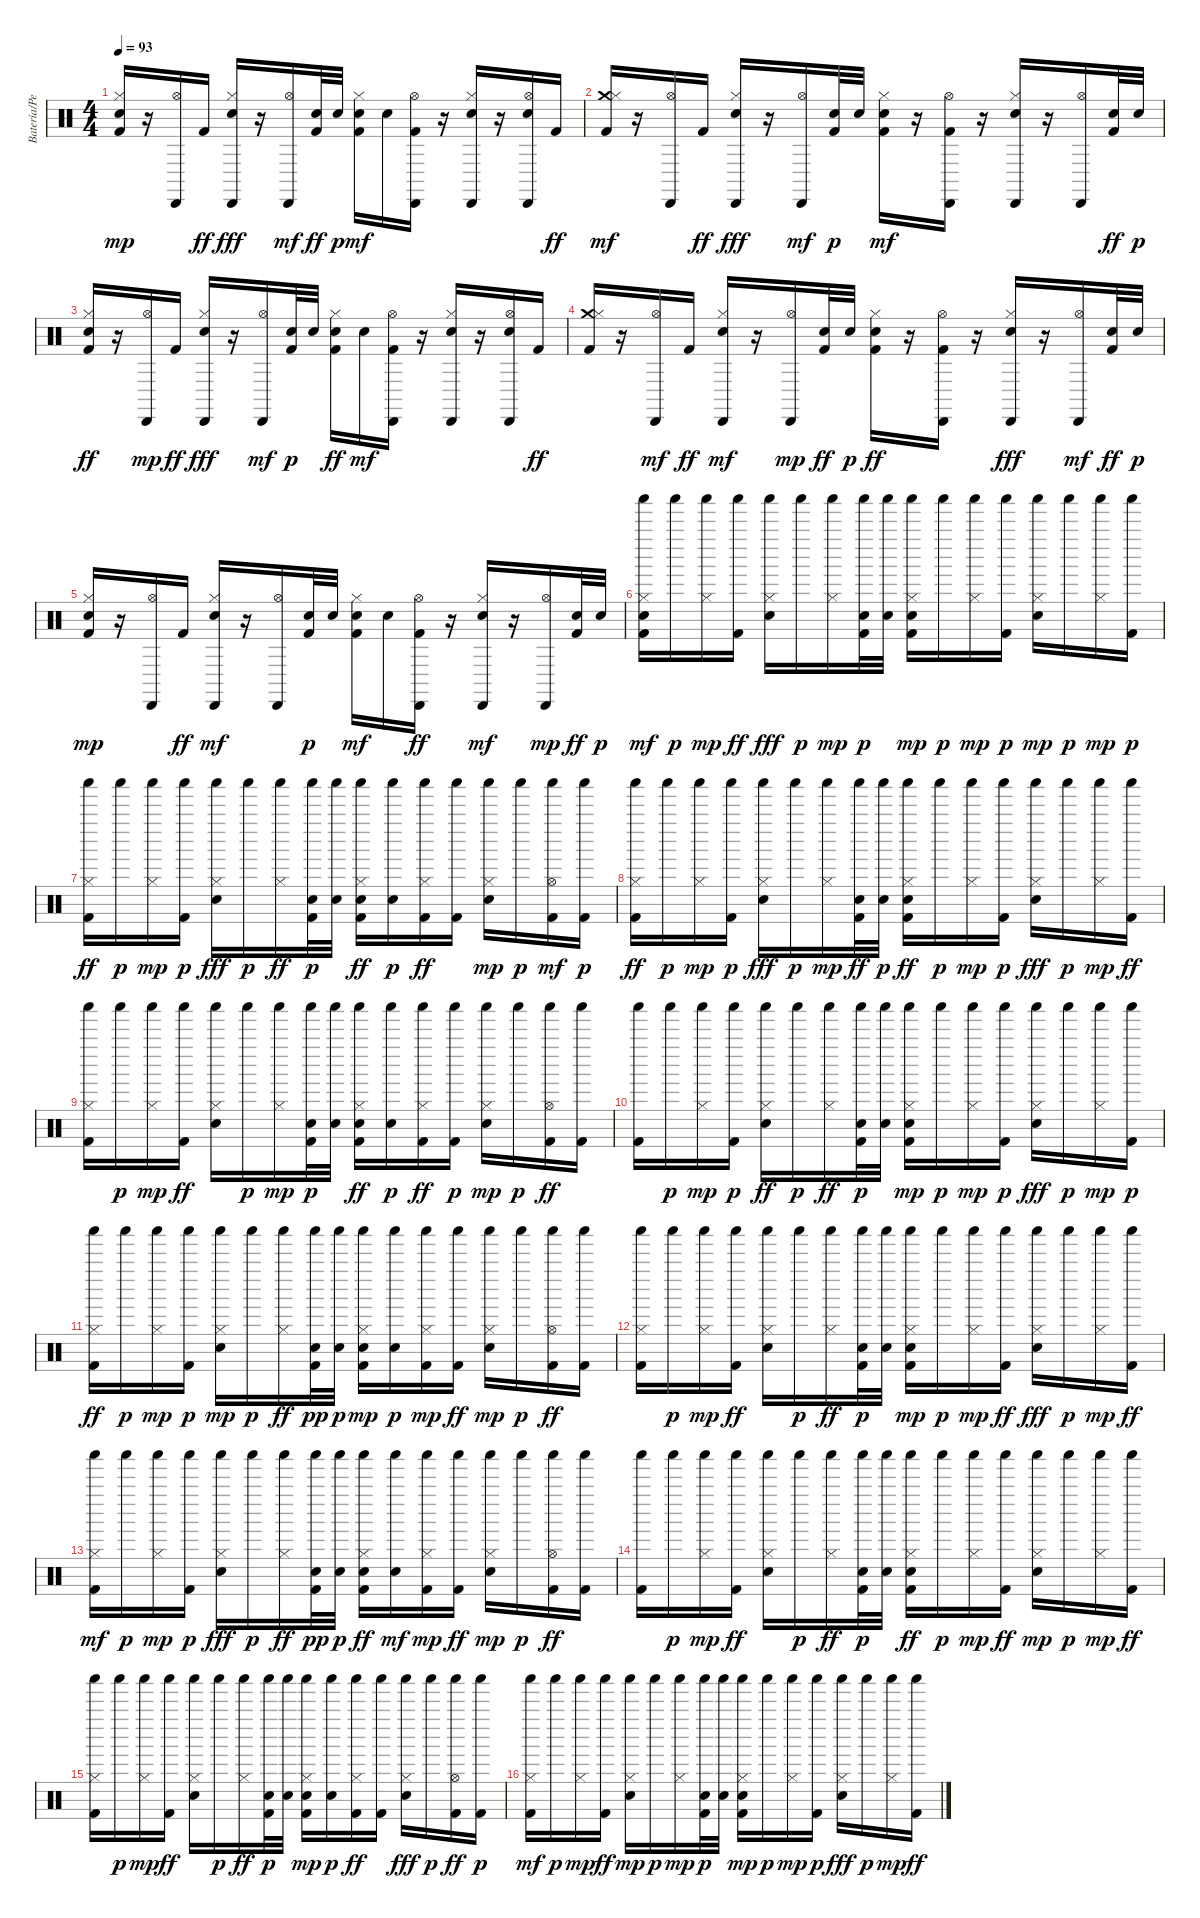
\track ("Batería/Percusión" "Batería/Pe") {instrument percussion}
\staff {score}
\articulation defaults
\ts (4 4)
\tempo 93
\clef neutral
\ks c
("Hi-Hat (closed)" "Kick (hit) 2" "Electric Snare (hit)").16{dy mp} r.16 ("Cabasa (hit)" "Hi-Hat (open)").16 "Kick (hit) 2".16{dy ff} ("Cabasa (hit)" "Hi-Hat (closed)" "Electric Snare (hit)").16{dy fff} r.16 ("Hi-Hat (open)" "Cabasa (hit)").16{dy mf} ("Electric Snare (hit)" "Kick (hit) 2").32{dy ff} "Electric Snare (hit)".32{dy p} ("Electric Snare (hit)" "Kick (hit) 2" "Hi-Hat (closed)").16{dy mf} "Electric Snare (hit)".16 ("Kick (hit) 2" "Cabasa (hit)" "Hi-Hat (open)").16 r.16 ("Cabasa (hit)" "Electric Snare (hit)" "Hi-Hat (closed)").16 r.16 ("Hi-Hat (open)" "Electric Snare (hit)" "Cabasa (hit)").16 "Kick (hit) 2".16{dy ff} |
("Crash medium (hit)" "Kick (hit) 2" "Hi-Hat (closed)").16{dy mf} r.16 ("Hi-Hat (open)" "Cabasa (hit)").16 "Kick (hit) 2".16{dy ff} ("Hi-Hat (closed)" "Cabasa (hit)" "Electric Snare (hit)").16{dy fff} r.16 ("Cabasa (hit)" "Hi-Hat (open)").16{dy mf} ("Kick (hit) 2" "Electric Snare (hit)").32{dy p} "Electric Snare (hit)".32 ("Kick (hit) 2" "Electric Snare (hit)" "Hi-Hat (closed)").16{dy mf} r.16 ("Kick (hit) 2" "Hi-Hat (open)" "Cabasa (hit)").16 r.16 ("Electric Snare (hit)" "Cabasa (hit)" "Hi-Hat (closed)").16 r.16 ("Cabasa (hit)" "Hi-Hat (open)").16 ("Electric Snare (hit)" "Kick (hit) 2").32{dy ff} "Electric Snare (hit)".32{dy p} |
("Electric Snare (hit)" "Hi-Hat (closed)" "Kick (hit) 2").16{dy ff} r.16 ("Cabasa (hit)" "Hi-Hat (open)").16{dy mp} "Kick (hit) 2".16{dy ff} ("Cabasa (hit)" "Hi-Hat (closed)" "Electric Snare (hit)").16{dy fff} r.16 ("Cabasa (hit)" "Hi-Hat (open)").16{dy mf} ("Kick (hit) 2" "Electric Snare (hit)").32{dy p} "Electric Snare (hit)".32 ("Hi-Hat (closed)" "Electric Snare (hit)" "Kick (hit) 2").16{dy ff} "Electric Snare (hit)".16{dy mf} ("Hi-Hat (open)" "Kick (hit) 2" "Cabasa (hit)").16 r.16 ("Cabasa (hit)" "Electric Snare (hit)" "Hi-Hat (closed)").16 r.16 ("Electric Snare (hit)" "Cabasa (hit)" "Hi-Hat (open)").16 "Kick (hit) 2".16{dy ff} |
("Crash medium (hit)" "Hi-Hat (closed)" "Kick (hit) 2").16 r.16 ("Hi-Hat (open)" "Cabasa (hit)").16{dy mf} "Kick (hit) 2".16{dy ff} ("Electric Snare (hit)" "Cabasa (hit)" "Hi-Hat (closed)").16{dy mf} r.16 ("Cabasa (hit)" "Hi-Hat (open)").16{dy mp} ("Electric Snare (hit)" "Kick (hit) 2").32{dy ff} "Electric Snare (hit)".32{dy p} ("Hi-Hat (closed)" "Electric Snare (hit)" "Kick (hit) 2").16{dy ff} r.16 ("Hi-Hat (open)" "Cabasa (hit)" "Kick (hit) 2").16 r.16 ("Hi-Hat (closed)" "Cabasa (hit)" "Electric Snare (hit)").16{dy fff} r.16 ("Hi-Hat (open)" "Cabasa (hit)").16{dy mf} ("Electric Snare (hit)" "Kick (hit) 2").32{dy ff} "Electric Snare (hit)".32{dy p} |
("Hi-Hat (closed)" "Kick (hit) 2" "Electric Snare (hit)").16{dy mp} r.16 ("Cabasa (hit)" "Hi-Hat (open)").16 "Kick (hit) 2".16{dy ff} ("Cabasa (hit)" "Electric Snare (hit)" "Hi-Hat (closed)").16{dy mf} r.16 ("Hi-Hat (open)" "Cabasa (hit)").16 ("Kick (hit) 2" "Electric Snare (hit)").32{dy p} "Electric Snare (hit)".32 ("Electric Snare (hit)" "Kick (hit) 2" "Hi-Hat (closed)").16{dy mf} "Electric Snare (hit)".16 ("Cabasa (hit)" "Hi-Hat (open)" "Kick (hit) 2").16{dy ff} r.16 ("Hi-Hat (closed)" "Electric Snare (hit)" "Cabasa (hit)").16{dy mf} r.16 ("Cabasa (hit)" "Hi-Hat (open)").16{dy mp} ("Electric Snare (hit)" "Kick (hit) 2").32{dy ff} "Electric Snare (hit)".32{dy p} |
("Hi-Hat (closed)" "Kick (hit) 2" "Electric Snare (hit)" "Shaker (hit)").16{dy mf} "Shaker (hit)".16{dy p} ("Hi-Hat (closed)" "Shaker (hit)").16{dy mp} ("Shaker (hit)" "Kick (hit) 2").16{dy ff} ("Shaker (hit)" "Hi-Hat (closed)" "Electric Snare (hit)").16{dy fff} "Shaker (hit)".16{dy p} ("Hi-Hat (closed)" "Shaker (hit)").16{dy mp} ("Shaker (hit)" "Kick (hit) 2" "Electric Snare (hit)").32{dy p} ("Electric Snare (hit)" "Shaker (hit)").32 ("Shaker (hit)" "Kick (hit) 2" "Hi-Hat (closed)" "Electric Snare (hit)").16{dy mp} "Shaker (hit)".16{dy p} ("Hi-Hat (closed)" "Shaker (hit)").16{dy mp} ("Kick (hit) 2" "Shaker (hit)").16{dy p} ("Electric Snare (hit)" "Shaker (hit)" "Hi-Hat (closed)").16{dy mp} "Shaker (hit)".16{dy p} ("Shaker (hit)" "Hi-Hat (closed)").16{dy mp} ("Kick (hit) 2" "Shaker (hit)").16{dy p} |
("Hi-Hat (closed)" "Shaker (hit)" "Kick (hit) 2").16{dy ff} "Shaker (hit)".16{dy p} ("Hi-Hat (closed)" "Shaker (hit)").16{dy mp} ("Kick (hit) 2" "Shaker (hit)").16{dy p} ("Shaker (hit)" "Hi-Hat (closed)" "Electric Snare (hit)").16{dy fff} "Shaker (hit)".16{dy p} ("Shaker (hit)" "Hi-Hat (closed)").16{dy ff} ("Shaker (hit)" "Kick (hit) 2" "Electric Snare (hit)").32{dy p} ("Shaker (hit)" "Electric Snare (hit)").32 ("Shaker (hit)" "Electric Snare (hit)" "Kick (hit) 2" "Hi-Hat (closed)").16{dy ff} ("Electric Snare (hit)" "Shaker (hit)").16{dy p} ("Hi-Hat (closed)" "Shaker (hit)" "Kick (hit) 2").16{dy ff} ("Shaker (hit)" "Kick (hit) 2").16 ("Electric Snare (hit)" "Hi-Hat (closed)" "Shaker (hit)").16{dy mp} "Shaker (hit)".16{dy p} ("Shaker (hit)" "Kick (hit) 2" "Hi-Hat (open)").16{dy mf} ("Kick (hit) 2" "Shaker (hit)").16{dy p} |
("Shaker (hit)" "Hi-Hat (closed)" "Kick (hit) 2").16{dy ff} "Shaker (hit)".16{dy p} ("Shaker (hit)" "Hi-Hat (closed)").16{dy mp} ("Kick (hit) 2" "Shaker (hit)").16{dy p} ("Shaker (hit)" "Hi-Hat (closed)" "Electric Snare (hit)").16{dy fff} "Shaker (hit)".16{dy p} ("Hi-Hat (closed)" "Shaker (hit)").16{dy mp} ("Shaker (hit)" "Electric Snare (hit)" "Kick (hit) 2").32{dy ff} ("Electric Snare (hit)" "Shaker (hit)").32{dy p} ("Shaker (hit)" "Electric Snare (hit)" "Kick (hit) 2" "Hi-Hat (closed)").16{dy ff} "Shaker (hit)".16{dy p} ("Hi-Hat (closed)" "Shaker (hit)").16{dy mp} ("Kick (hit) 2" "Shaker (hit)").16{dy p} ("Hi-Hat (closed)" "Shaker (hit)" "Electric Snare (hit)").16{dy fff} "Shaker (hit)".16{dy p} ("Hi-Hat (closed)" "Shaker (hit)").16{dy mp} ("Shaker (hit)" "Kick (hit) 2").16{dy ff} |
("Shaker (hit)" "Kick (hit) 2" "Hi-Hat (closed)").16 "Shaker (hit)".16{dy p} ("Hi-Hat (closed)" "Shaker (hit)").16{dy mp} ("Shaker (hit)" "Kick (hit) 2").16{dy ff} ("Shaker (hit)" "Electric Snare (hit)" "Hi-Hat (closed)").16 "Shaker (hit)".16{dy p} ("Hi-Hat (closed)" "Shaker (hit)").16{dy mp} ("Kick (hit) 2" "Shaker (hit)" "Electric Snare (hit)").32{dy p} ("Shaker (hit)" "Electric Snare (hit)").32 ("Shaker (hit)" "Electric Snare (hit)" "Hi-Hat (closed)" "Kick (hit) 2").16{dy ff} ("Electric Snare (hit)" "Shaker (hit)").16{dy p} ("Shaker (hit)" "Hi-Hat (closed)" "Kick (hit) 2").16{dy ff} ("Kick (hit) 2" "Shaker (hit)").16{dy p} ("Electric Snare (hit)" "Hi-Hat (closed)" "Shaker (hit)").16{dy mp} "Shaker (hit)".16{dy p} ("Shaker (hit)" "Hi-Hat (open)" "Kick (hit) 2").16{dy ff} ("Shaker (hit)" "Kick (hit) 2").16 |
("Shaker (hit)" "Kick (hit) 2").16 "Shaker (hit)".16{dy p} ("Shaker (hit)" "Hi-Hat (closed)").16{dy mp} ("Kick (hit) 2" "Shaker (hit)").16{dy p} ("Shaker (hit)" "Electric Snare (hit)" "Hi-Hat (closed)").16{dy ff} "Shaker (hit)".16{dy p} ("Shaker (hit)" "Hi-Hat (closed)").16{dy ff} ("Kick (hit) 2" "Shaker (hit)" "Electric Snare (hit)").32{dy p} ("Shaker (hit)" "Electric Snare (hit)").32 ("Kick (hit) 2" "Electric Snare (hit)" "Hi-Hat (closed)" "Shaker (hit)").16{dy mp} "Shaker (hit)".16{dy p} ("Hi-Hat (closed)" "Shaker (hit)").16{dy mp} ("Kick (hit) 2" "Shaker (hit)").16{dy p} ("Shaker (hit)" "Hi-Hat (closed)" "Electric Snare (hit)").16{dy fff} "Shaker (hit)".16{dy p} ("Hi-Hat (closed)" "Shaker (hit)").16{dy mp} ("Kick (hit) 2" "Shaker (hit)").16{dy p} |
("Hi-Hat (closed)" "Shaker (hit)" "Kick (hit) 2").16{dy ff} "Shaker (hit)".16{dy p} ("Hi-Hat (closed)" "Shaker (hit)").16{dy mp} ("Kick (hit) 2" "Shaker (hit)").16{dy p} ("Electric Snare (hit)" "Hi-Hat (closed)" "Shaker (hit)").16{dy mp} "Shaker (hit)".16{dy p} ("Shaker (hit)" "Hi-Hat (closed)").16{dy ff} ("Electric Snare (hit)" "Kick (hit) 2" "Shaker (hit)").32{dy pp} ("Shaker (hit)" "Electric Snare (hit)").32{dy p} ("Electric Snare (hit)" "Kick (hit) 2" "Hi-Hat (closed)" "Shaker (hit)").16{dy mp} ("Electric Snare (hit)" "Shaker (hit)").16{dy p} ("Kick (hit) 2" "Hi-Hat (closed)" "Shaker (hit)").16{dy mp} ("Shaker (hit)" "Kick (hit) 2").16{dy ff} ("Electric Snare (hit)" "Shaker (hit)" "Hi-Hat (closed)").16{dy mp} "Shaker (hit)".16{dy p} ("Shaker (hit)" "Hi-Hat (open)" "Kick (hit) 2").16{dy ff} ("Shaker (hit)" "Kick (hit) 2").16 |
("Hi-Hat (closed)" "Shaker (hit)" "Kick (hit) 2").16 "Shaker (hit)".16{dy p} ("Shaker (hit)" "Hi-Hat (closed)").16{dy mp} ("Shaker (hit)" "Kick (hit) 2").16{dy ff} ("Shaker (hit)" "Electric Snare (hit)" "Hi-Hat (closed)").16 "Shaker (hit)".16{dy p} ("Shaker (hit)" "Hi-Hat (closed)").16{dy ff} ("Kick (hit) 2" "Shaker (hit)" "Electric Snare (hit)").32{dy p} ("Shaker (hit)" "Electric Snare (hit)").32 ("Hi-Hat (closed)" "Electric Snare (hit)" "Kick (hit) 2" "Shaker (hit)").16{dy mp} "Shaker (hit)".16{dy p} ("Hi-Hat (closed)" "Shaker (hit)").16{dy mp} ("Shaker (hit)" "Kick (hit) 2").16{dy ff} ("Shaker (hit)" "Hi-Hat (closed)" "Electric Snare (hit)").16{dy fff} "Shaker (hit)".16{dy p} ("Hi-Hat (closed)" "Shaker (hit)").16{dy mp} ("Shaker (hit)" "Kick (hit) 2").16{dy ff} |
("Hi-Hat (closed)" "Kick (hit) 2" "Shaker (hit)").16{dy mf} "Shaker (hit)".16{dy p} ("Shaker (hit)" "Hi-Hat (closed)").16{dy mp} ("Kick (hit) 2" "Shaker (hit)").16{dy p} ("Hi-Hat (closed)" "Shaker (hit)" "Electric Snare (hit)").16{dy fff} "Shaker (hit)".16{dy p} ("Shaker (hit)" "Hi-Hat (closed)").16{dy ff} ("Electric Snare (hit)" "Kick (hit) 2" "Shaker (hit)").32{dy pp} ("Shaker (hit)" "Electric Snare (hit)").32{dy p} ("Shaker (hit)" "Electric Snare (hit)" "Kick (hit) 2" "Hi-Hat (closed)").16{dy ff} ("Shaker (hit)" "Electric Snare (hit)").16{dy mf} ("Kick (hit) 2" "Hi-Hat (closed)" "Shaker (hit)").16{dy mp} ("Shaker (hit)" "Kick (hit) 2").16{dy ff} ("Electric Snare (hit)" "Hi-Hat (closed)" "Shaker (hit)").16{dy mp} "Shaker (hit)".16{dy p} ("Shaker (hit)" "Hi-Hat (open)" "Kick (hit) 2").16{dy ff} ("Shaker (hit)" "Kick (hit) 2").16 |
("Shaker (hit)" "Kick (hit) 2").16 "Shaker (hit)".16{dy p} ("Shaker (hit)" "Hi-Hat (closed)").16{dy mp} ("Shaker (hit)" "Kick (hit) 2").16{dy ff} ("Electric Snare (hit)" "Shaker (hit)" "Hi-Hat (closed)").16 "Shaker (hit)".16{dy p} ("Shaker (hit)" "Hi-Hat (closed)").16{dy ff} ("Shaker (hit)" "Kick (hit) 2" "Electric Snare (hit)").32{dy p} ("Shaker (hit)" "Electric Snare (hit)").32 ("Hi-Hat (closed)" "Shaker (hit)" "Electric Snare (hit)" "Kick (hit) 2").16{dy ff} "Shaker (hit)".16{dy p} ("Hi-Hat (closed)" "Shaker (hit)").16{dy mp} ("Shaker (hit)" "Kick (hit) 2").16{dy ff} ("Electric Snare (hit)" "Shaker (hit)" "Hi-Hat (closed)").16{dy mp} "Shaker (hit)".16{dy p} ("Shaker (hit)" "Hi-Hat (closed)").16{dy mp} ("Shaker (hit)" "Kick (hit) 2").16{dy ff} |
("Kick (hit) 2" "Shaker (hit)" "Hi-Hat (closed)").16 "Shaker (hit)".16{dy p} ("Shaker (hit)" "Hi-Hat (closed)").16{dy mp} ("Shaker (hit)" "Kick (hit) 2").16{dy ff} ("Electric Snare (hit)" "Shaker (hit)" "Hi-Hat (closed)").16 "Shaker (hit)".16{dy p} ("Shaker (hit)" "Hi-Hat (closed)").16{dy ff} ("Kick (hit) 2" "Shaker (hit)" "Electric Snare (hit)").32{dy p} ("Electric Snare (hit)" "Shaker (hit)").32 ("Hi-Hat (closed)" "Shaker (hit)" "Kick (hit) 2" "Electric Snare (hit)").16{dy mp} ("Electric Snare (hit)" "Shaker (hit)").16{dy p} ("Hi-Hat (closed)" "Shaker (hit)" "Kick (hit) 2").16{dy ff} ("Shaker (hit)" "Kick (hit) 2").16 ("Hi-Hat (closed)" "Shaker (hit)" "Electric Snare (hit)").16{dy fff} "Shaker (hit)".16{dy p} ("Hi-Hat (open)" "Shaker (hit)" "Kick (hit) 2").16{dy ff} ("Kick (hit) 2" "Shaker (hit)").16{dy p} |
("Hi-Hat (closed)" "Kick (hit) 2" "Shaker (hit)").16{dy mf} "Shaker (hit)".16{dy p} ("Hi-Hat (closed)" "Shaker (hit)").16{dy mp} ("Shaker (hit)" "Kick (hit) 2").16{dy ff} ("Hi-Hat (closed)" "Electric Snare (hit)" "Shaker (hit)").16{dy mp} "Shaker (hit)".16{dy p} ("Hi-Hat (closed)" "Shaker (hit)").16{dy mp} ("Kick (hit) 2" "Shaker (hit)" "Electric Snare (hit)").32{dy p} ("Shaker (hit)" "Electric Snare (hit)").32 ("Kick (hit) 2" "Shaker (hit)" "Hi-Hat (closed)" "Electric Snare (hit)").16{dy mp} "Shaker (hit)".16{dy p} ("Hi-Hat (closed)" "Shaker (hit)").16{dy mp} ("Kick (hit) 2" "Shaker (hit)").16{dy p} ("Shaker (hit)" "Electric Snare (hit)" "Hi-Hat (closed)").16{dy fff} "Shaker (hit)".16{dy p} ("Hi-Hat (closed)" "Shaker (hit)").16{dy mp} ("Shaker (hit)" "Kick (hit) 2").16{dy ff}
